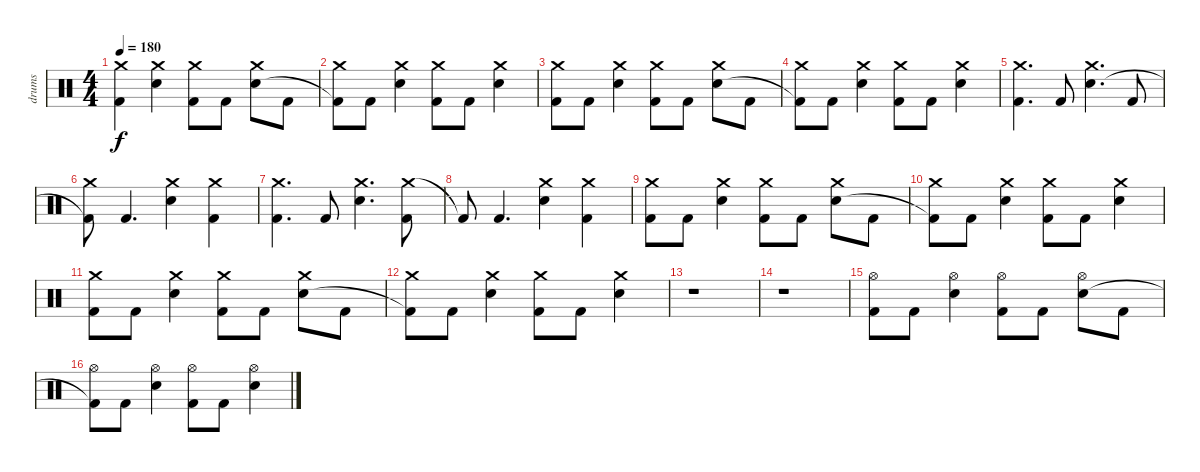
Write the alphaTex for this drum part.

\track ("drums" "drums") {instrument percussion}
\staff {score}
\articulation defaults
\ts (4 4)
\tempo 180
\clef neutral
\ks c
("Crash medium (hit)" "Kick (hit) 2").4{dy f} ("Crash medium (hit)" "Electric Snare (hit)").4 ("Crash medium (hit)" "Kick (hit) 2").8 "Kick (hit) 2".8 ("Crash medium (hit)" "Electric Snare (hit)").8 "Kick (hit) 2".8 |
("Crash medium (hit)" "Kick (hit) 2"{t}).8 "Kick (hit) 2".8 ("Crash medium (hit)" "Electric Snare (hit)").4 ("Crash medium (hit)" "Kick (hit) 2").8 "Kick (hit) 2".8 ("Crash medium (hit)" "Electric Snare (hit)").4 |
("Crash medium (hit)" "Kick (hit) 2").8 "Kick (hit) 2".8 ("Crash medium (hit)" "Electric Snare (hit)").4 ("Crash medium (hit)" "Kick (hit) 2").8 "Kick (hit) 2".8 ("Crash medium (hit)" "Electric Snare (hit)").8 "Kick (hit) 2".8 |
("Crash medium (hit)" "Kick (hit) 2"{t}).8 "Kick (hit) 2".8 ("Crash medium (hit)" "Electric Snare (hit)").4 ("Crash medium (hit)" "Kick (hit) 2").8 "Kick (hit) 2".8 ("Crash medium (hit)" "Electric Snare (hit)").4 |
("Crash medium (hit)" "Kick (hit) 2").4{d} "Kick (hit) 2".8 ("Crash medium (hit)" "Electric Snare (hit)").4{d} "Kick (hit) 2".8 |
("Crash medium (hit)" "Kick (hit) 2"{t}).8 "Kick (hit) 2".4{d} ("Crash medium (hit)" "Electric Snare (hit)").4 ("Crash medium (hit)" "Kick (hit) 2").4 |
("Crash medium (hit)" "Kick (hit) 2").4{d} "Kick (hit) 2".8 ("Crash medium (hit)" "Electric Snare (hit)").4{d} ("Crash medium (hit)" "Kick (hit) 2").8 |
"Kick (hit) 2"{t}.8 "Kick (hit) 2".4{d} ("Crash medium (hit)" "Electric Snare (hit)").4 ("Crash medium (hit)" "Kick (hit) 2").4 |
("Crash medium (hit)" "Kick (hit) 2").8 "Kick (hit) 2".8 ("Crash medium (hit)" "Electric Snare (hit)").4 ("Crash medium (hit)" "Kick (hit) 2").8 "Kick (hit) 2".8 ("Crash medium (hit)" "Electric Snare (hit)").8 "Kick (hit) 2".8 |
("Crash medium (hit)" "Kick (hit) 2"{t}).8 "Kick (hit) 2".8 ("Crash medium (hit)" "Electric Snare (hit)").4 ("Crash medium (hit)" "Kick (hit) 2").8 "Kick (hit) 2".8 ("Crash medium (hit)" "Electric Snare (hit)").4 |
("Crash medium (hit)" "Kick (hit) 2").8 "Kick (hit) 2".8 ("Crash medium (hit)" "Electric Snare (hit)").4 ("Crash medium (hit)" "Kick (hit) 2").8 "Kick (hit) 2".8 ("Crash medium (hit)" "Electric Snare (hit)").8 "Kick (hit) 2".8 |
("Crash medium (hit)" "Kick (hit) 2"{t}).8 "Kick (hit) 2".8 ("Crash medium (hit)" "Electric Snare (hit)").4 ("Crash medium (hit)" "Kick (hit) 2").8 "Kick (hit) 2".8 ("Crash medium (hit)" "Electric Snare (hit)").4 |
r.1 |
r.1 |
("Hi-Hat (open)" "Kick (hit) 2").8 "Kick (hit) 2".8 ("Hi-Hat (open)" "Electric Snare (hit)").4 ("Hi-Hat (open)" "Kick (hit) 2").8 "Kick (hit) 2".8 ("Hi-Hat (open)" "Electric Snare (hit)").8 "Kick (hit) 2".8 |
("Hi-Hat (open)" "Kick (hit) 2"{t}).8 "Kick (hit) 2".8 ("Hi-Hat (open)" "Electric Snare (hit)").4 ("Hi-Hat (open)" "Kick (hit) 2").8 "Kick (hit) 2".8 ("Hi-Hat (open)" "Electric Snare (hit)").4
